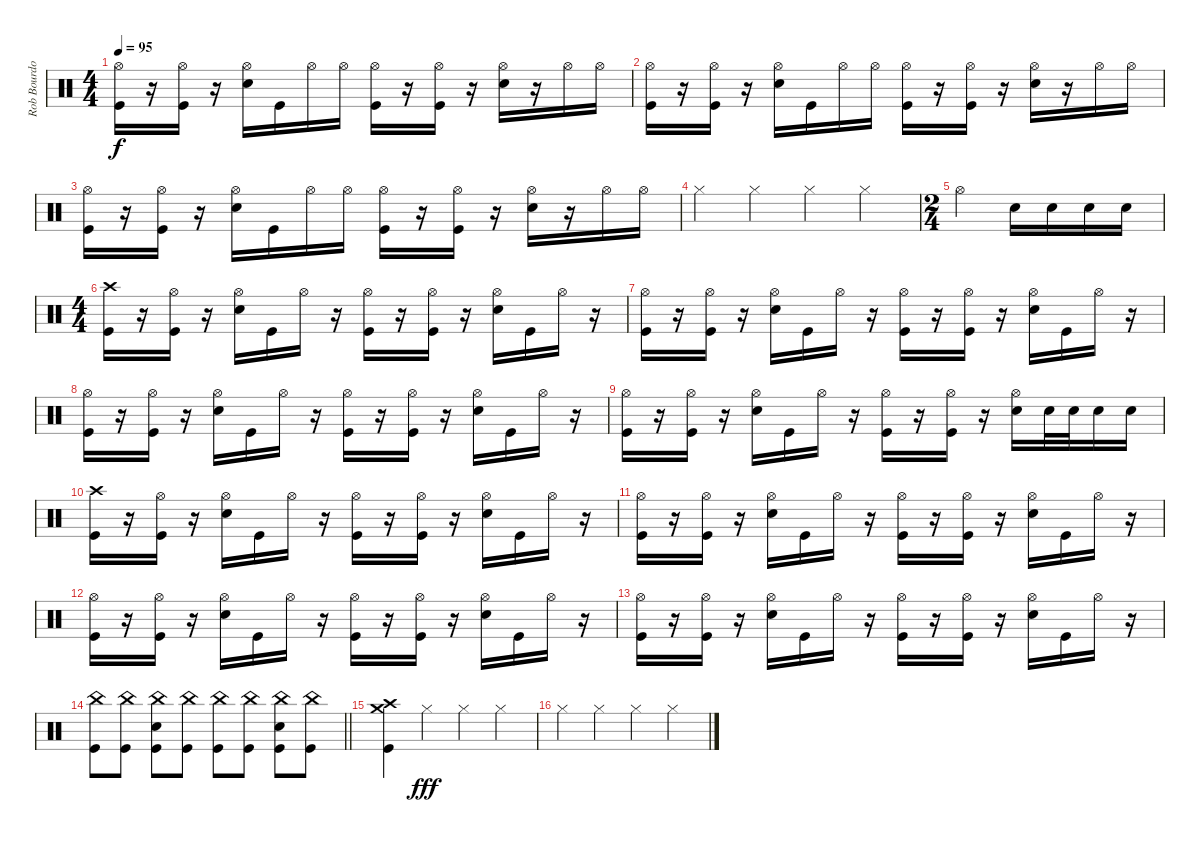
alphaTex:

\track ("Rob Bourdon" "Rob Bourdo") {instrument percussion}
\staff {score}
\articulation defaults
\ts (4 4)
\tempo 95
\clef neutral
\ks c
("Hi-Hat (open)" "Kick (hit)").16{dy f} r.16 ("Hi-Hat (open)" "Kick (hit)").16 r.16 ("Hi-Hat (open)" "Snare (hit) 2").16 "Kick (hit)".16 "Hi-Hat (open)".16 "Hi-Hat (open)".16 ("Hi-Hat (open)" "Kick (hit)").16 r.16 ("Hi-Hat (open)" "Kick (hit)").16 r.16 ("Hi-Hat (open)" "Snare (hit) 2").16 r.16 "Hi-Hat (open)".16 "Hi-Hat (open)".16 |
("Hi-Hat (open)" "Kick (hit)").16 r.16 ("Hi-Hat (open)" "Kick (hit)").16 r.16 ("Hi-Hat (open)" "Snare (hit) 2").16 "Kick (hit)".16 "Hi-Hat (open)".16 "Hi-Hat (open)".16 ("Hi-Hat (open)" "Kick (hit)").16 r.16 ("Hi-Hat (open)" "Kick (hit)").16 r.16 ("Hi-Hat (open)" "Snare (hit) 2").16 r.16 "Hi-Hat (open)".16 "Hi-Hat (open)".16 |
("Hi-Hat (open)" "Kick (hit)").16 r.16 ("Hi-Hat (open)" "Kick (hit)").16 r.16 ("Hi-Hat (open)" "Snare (hit) 2").16 "Kick (hit)".16 "Hi-Hat (open)".16 "Hi-Hat (open)".16 ("Hi-Hat (open)" "Kick (hit)").16 r.16 ("Hi-Hat (open)" "Kick (hit)").16 r.16 ("Hi-Hat (open)" "Snare (hit) 2").16 r.16 "Hi-Hat (open)".16 "Hi-Hat (open)".16 |
"Hi-Hat (closed)".4 "Hi-Hat (closed)".4 "Hi-Hat (closed)".4 "Hi-Hat (closed)".4 |
\ts (2 4)
"Hi-Hat (open)".4 "Snare (hit) 2".16 "Snare (hit) 2".16 "Snare (hit) 2".16 "Snare (hit) 2".16 |
\ts (4 4)
("Crash high (hit)" "Kick (hit)").16 r.16 ("Hi-Hat (open)" "Kick (hit)").16 r.16 ("Hi-Hat (open)" "Snare (hit) 2").16 "Kick (hit)".16 "Hi-Hat (open)".16 r.16 ("Hi-Hat (open)" "Kick (hit)").16 r.16 ("Hi-Hat (open)" "Kick (hit)").16 r.16 ("Hi-Hat (open)" "Snare (hit) 2").16 "Kick (hit)".16 "Hi-Hat (open)".16 r.16 |
("Hi-Hat (open)" "Kick (hit)").16 r.16 ("Hi-Hat (open)" "Kick (hit)").16 r.16 ("Hi-Hat (open)" "Snare (hit) 2").16 "Kick (hit)".16 "Hi-Hat (open)".16 r.16 ("Hi-Hat (open)" "Kick (hit)").16 r.16 ("Hi-Hat (open)" "Kick (hit)").16 r.16 ("Hi-Hat (open)" "Snare (hit) 2").16 "Kick (hit)".16 "Hi-Hat (open)".16 r.16 |
("Hi-Hat (open)" "Kick (hit)").16 r.16 ("Hi-Hat (open)" "Kick (hit)").16 r.16 ("Hi-Hat (open)" "Snare (hit) 2").16 "Kick (hit)".16 "Hi-Hat (open)".16 r.16 ("Hi-Hat (open)" "Kick (hit)").16 r.16 ("Hi-Hat (open)" "Kick (hit)").16 r.16 ("Hi-Hat (open)" "Snare (hit) 2").16 "Kick (hit)".16 "Hi-Hat (open)".16 r.16 |
("Hi-Hat (open)" "Kick (hit)").16 r.16 ("Hi-Hat (open)" "Kick (hit)").16 r.16 ("Hi-Hat (open)" "Snare (hit) 2").16 "Kick (hit)".16 "Hi-Hat (open)".16 r.16 ("Hi-Hat (open)" "Kick (hit)").16 r.16 ("Hi-Hat (open)" "Kick (hit)").16 r.16 ("Hi-Hat (open)" "Snare (hit) 2").16 "Snare (hit) 2".32 "Snare (hit) 2".32 "Snare (hit) 2".16 "Snare (hit) 2".16 |
("Crash high (hit)" "Kick (hit)").16 r.16 ("Hi-Hat (open)" "Kick (hit)").16 r.16 ("Hi-Hat (open)" "Snare (hit) 2").16 "Kick (hit)".16 "Hi-Hat (open)".16 r.16 ("Hi-Hat (open)" "Kick (hit)").16 r.16 ("Hi-Hat (open)" "Kick (hit)").16 r.16 ("Hi-Hat (open)" "Snare (hit) 2").16 "Kick (hit)".16 "Hi-Hat (open)".16 r.16 |
("Hi-Hat (open)" "Kick (hit)").16 r.16 ("Hi-Hat (open)" "Kick (hit)").16 r.16 ("Hi-Hat (open)" "Snare (hit) 2").16 "Kick (hit)".16 "Hi-Hat (open)".16 r.16 ("Hi-Hat (open)" "Kick (hit)").16 r.16 ("Hi-Hat (open)" "Kick (hit)").16 r.16 ("Hi-Hat (open)" "Snare (hit) 2").16 "Kick (hit)".16 "Hi-Hat (open)".16 r.16 |
("Hi-Hat (open)" "Kick (hit)").16 r.16 ("Hi-Hat (open)" "Kick (hit)").16 r.16 ("Hi-Hat (open)" "Snare (hit) 2").16 "Kick (hit)".16 "Hi-Hat (open)".16 r.16 ("Hi-Hat (open)" "Kick (hit)").16 r.16 ("Hi-Hat (open)" "Kick (hit)").16 r.16 ("Hi-Hat (open)" "Snare (hit) 2").16 "Kick (hit)".16 "Hi-Hat (open)".16 r.16 |
("Hi-Hat (open)" "Kick (hit)").16 r.16 ("Hi-Hat (open)" "Kick (hit)").16 r.16 ("Hi-Hat (open)" "Snare (hit) 2").16 "Kick (hit)".16 "Hi-Hat (open)".16 r.16 ("Hi-Hat (open)" "Kick (hit)").16 r.16 ("Hi-Hat (open)" "Kick (hit)").16 r.16 ("Hi-Hat (open)" "Snare (hit) 2").16 "Kick (hit)".16 "Hi-Hat (open)".16 r.16 |
\barLineRight lightlight
("China (hit)" "Kick (hit)").8 ("China (hit)" "Kick (hit)").8 ("China (hit)" "Snare (hit) 2" "Kick (hit)").8 ("China (hit)" "Kick (hit)").8 ("China (hit)" "Kick (hit)").8 ("China (hit)" "Kick (hit)").8 ("China (hit)" "Snare (hit) 2" "Kick (hit)").8 ("China (hit)" "Kick (hit)").8 |
("Crash high (hit)" "Crash medium (hit)" "Kick (hit)").4 "Hi-Hat (closed)".4{dy fff} "Hi-Hat (closed)".4 "Hi-Hat (closed)".4 |
"Hi-Hat (closed)".4 "Hi-Hat (closed)".4 "Hi-Hat (closed)".4 "Hi-Hat (closed)".4
